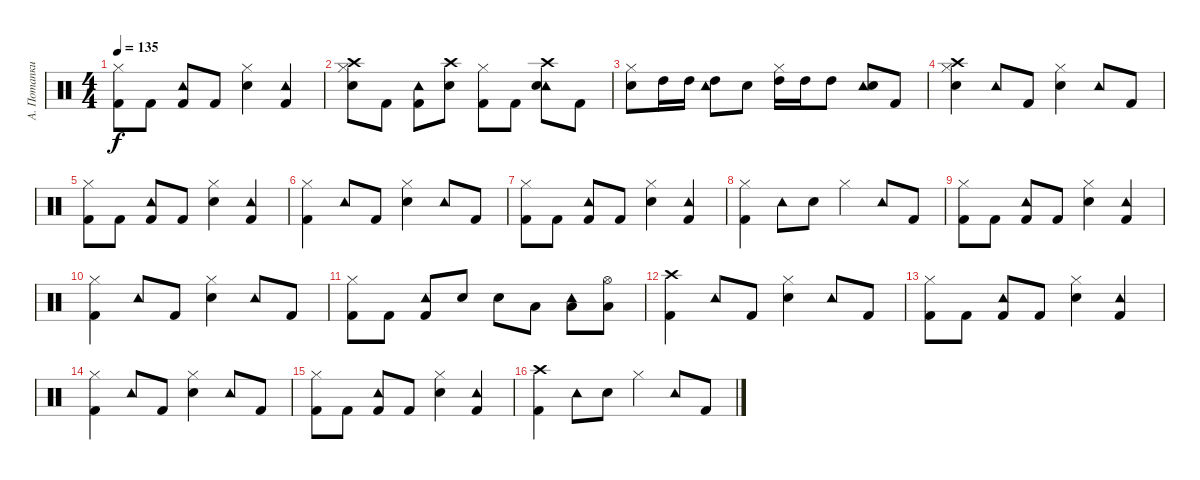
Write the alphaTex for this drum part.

\track ("А. Потапкин" "А. Потапки") {instrument percussion}
\staff {score}
\articulation defaults
\ts (4 4)
\tempo 135
\clef neutral
\ks c
("Hi-Hat (closed)" "Kick (hit) 2").8{dy f} "Kick (hit) 2".8 ("Tambourine (hit)" "Kick (hit) 2").8 "Kick (hit) 2".8 ("Hi-Hat (closed)" "Snare (hit) 2").4 ("Tambourine (hit)" "Kick (hit) 2").4 |
("Crash high (hit)" "Hi-Hat (closed)" "Snare (hit) 2").8 "Kick (hit) 2".8 ("Tambourine (hit)" "Kick (hit) 2").8 ("Crash high (hit)" "Snare (hit) 2").8 ("Hi-Hat (closed)" "Kick (hit) 2").8 "Kick (hit) 2".8 ("Crash high (hit)" "Tambourine (hit)" "Snare (hit) 2").8 "Kick (hit) 2".8 |
("Hi-Hat (closed)" "Electric Snare (hit)").8 "High Tom (hit)".16 "High Tom (hit)".16 ("Tambourine (hit)" "High Tom (hit)").8 "Electric Snare (hit)".8 ("Hi-Hat (closed)" "High Tom (hit)").16 "High Tom (hit)".16 "High Tom (hit)".8 ("Tambourine (hit)" "Electric Snare (hit)").8 "Kick (hit) 2".8 |
("Crash high (hit)" "Hi-Hat (closed)" "Snare (hit) 2").4 "Tambourine (hit)".8 "Kick (hit) 2".8 ("Hi-Hat (closed)" "Snare (hit) 2").4 "Tambourine (hit)".8 "Kick (hit) 2".8 |
("Hi-Hat (closed)" "Kick (hit) 2").8 "Kick (hit) 2".8 ("Tambourine (hit)" "Kick (hit) 2").8 "Kick (hit) 2".8 ("Hi-Hat (closed)" "Snare (hit) 2").4 ("Tambourine (hit)" "Kick (hit) 2").4 |
("Hi-Hat (closed)" "Kick (hit) 2").4 "Tambourine (hit)".8 "Kick (hit) 2".8 ("Hi-Hat (closed)" "Snare (hit) 2").4 "Tambourine (hit)".8 "Kick (hit) 2".8 |
("Hi-Hat (closed)" "Kick (hit) 2").8 "Kick (hit) 2".8 ("Tambourine (hit)" "Kick (hit) 2").8 "Kick (hit) 2".8 ("Hi-Hat (closed)" "Snare (hit) 2").4 ("Tambourine (hit)" "Kick (hit) 2").4 |
("Hi-Hat (closed)" "Kick (hit) 2").4 "Tambourine (hit)".8 "Snare (hit) 2".8 "Hi-Hat (closed)".4 "Tambourine (hit)".8 "Kick (hit) 2".8 |
("Hi-Hat (closed)" "Kick (hit) 2").8 "Kick (hit) 2".8 ("Tambourine (hit)" "Kick (hit) 2").8 "Kick (hit) 2".8 ("Hi-Hat (closed)" "Snare (hit) 2").4 ("Tambourine (hit)" "Kick (hit) 2").4 |
("Hi-Hat (closed)" "Kick (hit) 2").4 "Tambourine (hit)".8 "Kick (hit) 2".8 ("Hi-Hat (closed)" "Snare (hit) 2").4 "Tambourine (hit)".8 "Kick (hit) 2".8 |
("Hi-Hat (closed)" "Kick (hit) 2").8 "Kick (hit) 2".8 ("Tambourine (hit)" "Kick (hit) 2").8 "Electric Snare (hit)".8 "Electric Snare (hit)".8 "Low Floor Tom (hit)".8 ("Tambourine (hit)" "Low Floor Tom (hit)").8 ("Hi-Hat (open)" "Low Floor Tom (hit)").8 |
("Crash high (hit)" "Kick (hit) 2").4 "Tambourine (hit)".8 "Kick (hit) 2".8 ("Hi-Hat (closed)" "Snare (hit) 2").4 "Tambourine (hit)".8 "Kick (hit) 2".8 |
("Hi-Hat (closed)" "Kick (hit) 2").8 "Kick (hit) 2".8 ("Tambourine (hit)" "Kick (hit) 2").8 "Kick (hit) 2".8 ("Hi-Hat (closed)" "Snare (hit) 2").4 ("Tambourine (hit)" "Kick (hit) 2").4 |
("Hi-Hat (closed)" "Kick (hit) 2").4 "Tambourine (hit)".8 "Kick (hit) 2".8 ("Hi-Hat (closed)" "Snare (hit) 2").4 "Tambourine (hit)".8 "Kick (hit) 2".8 |
("Hi-Hat (closed)" "Kick (hit) 2").8 "Kick (hit) 2".8 ("Tambourine (hit)" "Kick (hit) 2").8 "Kick (hit) 2".8 ("Hi-Hat (closed)" "Snare (hit) 2").4 ("Tambourine (hit)" "Kick (hit) 2").4 |
("Crash high (hit)" "Kick (hit) 2").4 "Tambourine (hit)".8 "Snare (hit) 2".8 "Hi-Hat (closed)".4 "Tambourine (hit)".8 "Kick (hit) 2".8
